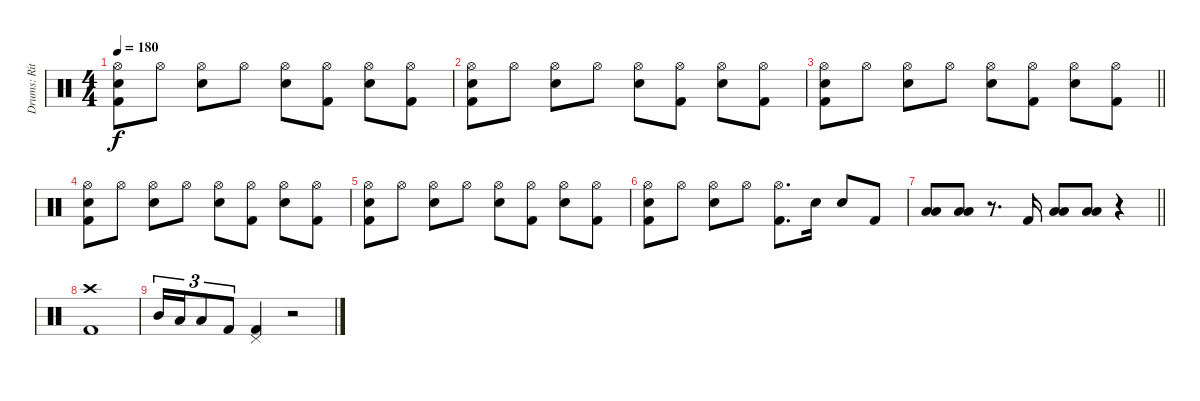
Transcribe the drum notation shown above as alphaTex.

\track ("Drums: Ritsu Tainaka" "Drums: Rit") {instrument percussion}
\staff {score}
\articulation defaults
\ts (4 4)
\tempo 180
\clef neutral
\ks c
("Hi-Hat (open)" "Electric Snare (hit)" "Kick (hit) 2").8{dy f} "Hi-Hat (open)".8 ("Hi-Hat (open)" "Electric Snare (hit)").8 "Hi-Hat (open)".8 ("Hi-Hat (open)" "Electric Snare (hit)").8 ("Hi-Hat (open)" "Kick (hit) 2").8 ("Hi-Hat (open)" "Electric Snare (hit)").8 ("Hi-Hat (open)" "Kick (hit) 2").8 |
("Hi-Hat (open)" "Electric Snare (hit)" "Kick (hit) 2").8 "Hi-Hat (open)".8 ("Hi-Hat (open)" "Electric Snare (hit)").8 "Hi-Hat (open)".8 ("Hi-Hat (open)" "Electric Snare (hit)").8 ("Hi-Hat (open)" "Kick (hit) 2").8 ("Hi-Hat (open)" "Electric Snare (hit)").8 ("Hi-Hat (open)" "Kick (hit) 2").8 |
\barLineRight lightlight
("Hi-Hat (open)" "Electric Snare (hit)" "Kick (hit) 2").8 "Hi-Hat (open)".8 ("Hi-Hat (open)" "Electric Snare (hit)").8 "Hi-Hat (open)".8 ("Hi-Hat (open)" "Electric Snare (hit)").8 ("Hi-Hat (open)" "Kick (hit) 2").8 ("Hi-Hat (open)" "Electric Snare (hit)").8 ("Hi-Hat (open)" "Kick (hit) 2").8 |
("Hi-Hat (open)" "Electric Snare (hit)" "Kick (hit) 2").8 "Hi-Hat (open)".8 ("Hi-Hat (open)" "Electric Snare (hit)").8 "Hi-Hat (open)".8 ("Hi-Hat (open)" "Electric Snare (hit)").8 ("Hi-Hat (open)" "Kick (hit) 2").8 ("Hi-Hat (open)" "Electric Snare (hit)").8 ("Hi-Hat (open)" "Kick (hit) 2").8 |
("Hi-Hat (open)" "Electric Snare (hit)" "Kick (hit) 2").8 "Hi-Hat (open)".8 ("Hi-Hat (open)" "Electric Snare (hit)").8 "Hi-Hat (open)".8 ("Hi-Hat (open)" "Electric Snare (hit)").8 ("Hi-Hat (open)" "Kick (hit) 2").8 ("Hi-Hat (open)" "Electric Snare (hit)").8 ("Hi-Hat (open)" "Kick (hit) 2").8 |
("Hi-Hat (open)" "Electric Snare (hit)" "Kick (hit) 2").8 "Hi-Hat (open)".8 ("Hi-Hat (open)" "Electric Snare (hit)").8 "Hi-Hat (open)".8 ("Hi-Hat (open)" "Kick (hit) 2").8{d} "Electric Snare (hit)".16 "Electric Snare (hit)".8 "Kick (hit) 2".8 |
\barLineRight lightlight
("Low Tom (hit)" "Low Floor Tom (hit)").8 ("Low Tom (hit)" "Low Floor Tom (hit)").8 r.8{d} "Kick (hit) 2".16 ("Low Tom (hit)" "Low Floor Tom (hit)").8 ("Low Tom (hit)" "Low Floor Tom (hit)").8 r.4 |
("Crash high (hit)" "Kick (hit) 2").1 |
"Mid Tom (hit)".16{tu (3 2)} "Low Tom (hit)".16{tu (3 2)} "Low Floor Tom (hit)".8{tu (3 2)} "Kick (hit) 2".8{tu (3 2)} ("Pedal Hi-Hat (hit)" "Kick (hit) 2").4 r.2
